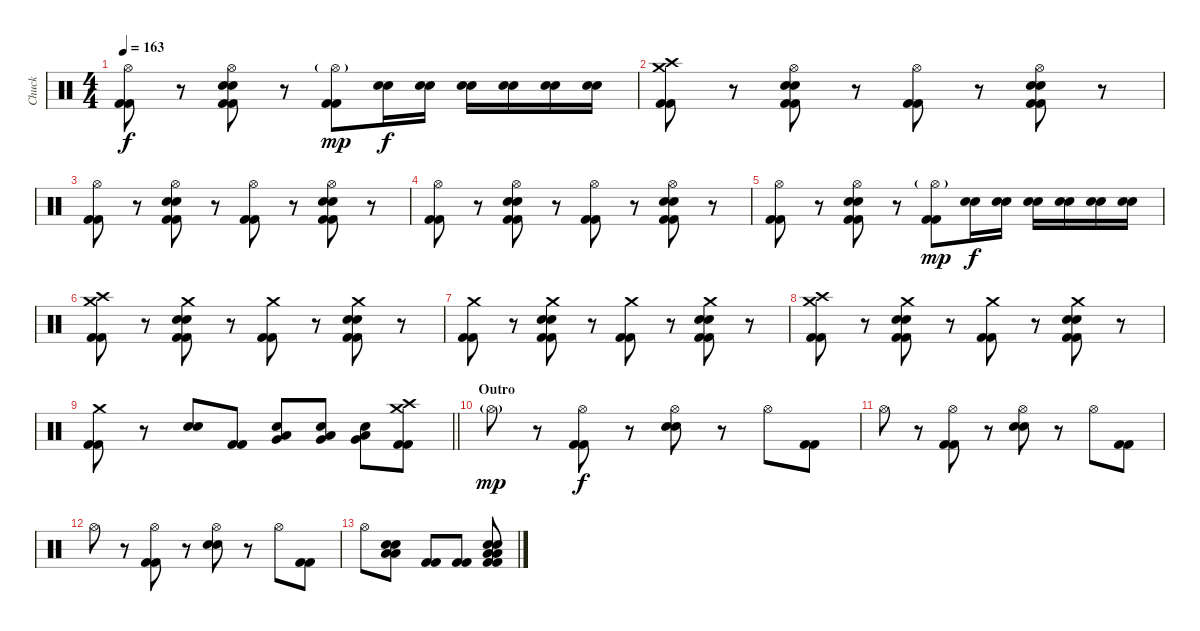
\track ("Chuck" "Chuck") {instrument percussion}
\staff {score}
\articulation defaults
\ts (4 4)
\tempo 163
\clef neutral
\ks c
("Hi-Hat (open)" "Kick (hit) 2" "Kick (hit) 2").8{dy f} r.8 ("Hi-Hat (open)" "Snare (hit) 2" "Snare (hit) 2" "Kick (hit) 2" "Kick (hit) 2").8 r.8 ("Hi-Hat (open)"{g} "Kick (hit) 2" "Kick (hit) 2").8{dy mp} ("Snare (hit) 2" "Snare (hit) 2").16{dy f} ("Snare (hit) 2" "Snare (hit) 2").16 ("Snare (hit) 2" "Snare (hit) 2").16 ("Snare (hit) 2" "Snare (hit) 2").16 ("Snare (hit) 2" "Snare (hit) 2").16 ("Snare (hit) 2" "Snare (hit) 2").16 |
("Crash medium (hit)" "Crash high (hit)" "Kick (hit) 2" "Kick (hit) 2").8 r.8 ("Hi-Hat (open)" "Snare (hit) 2" "Snare (hit) 2" "Kick (hit) 2" "Kick (hit) 2").8 r.8 ("Hi-Hat (open)" "Kick (hit) 2" "Kick (hit) 2").8 r.8 ("Hi-Hat (open)" "Snare (hit) 2" "Snare (hit) 2" "Kick (hit) 2" "Kick (hit) 2").8 r.8 |
("Hi-Hat (open)" "Kick (hit) 2" "Kick (hit) 2").8 r.8 ("Hi-Hat (open)" "Snare (hit) 2" "Snare (hit) 2" "Kick (hit) 2" "Kick (hit) 2").8 r.8 ("Hi-Hat (open)" "Kick (hit) 2" "Kick (hit) 2").8 r.8 ("Hi-Hat (open)" "Snare (hit) 2" "Snare (hit) 2" "Kick (hit) 2" "Kick (hit) 2").8 r.8 |
("Hi-Hat (open)" "Kick (hit) 2" "Kick (hit) 2").8 r.8 ("Hi-Hat (open)" "Snare (hit) 2" "Snare (hit) 2" "Kick (hit) 2" "Kick (hit) 2").8 r.8 ("Hi-Hat (open)" "Kick (hit) 2" "Kick (hit) 2").8 r.8 ("Hi-Hat (open)" "Snare (hit) 2" "Snare (hit) 2" "Kick (hit) 2" "Kick (hit) 2").8 r.8 |
("Hi-Hat (open)" "Kick (hit) 2" "Kick (hit) 2").8 r.8 ("Hi-Hat (open)" "Snare (hit) 2" "Snare (hit) 2" "Kick (hit) 2" "Kick (hit) 2").8 r.8 ("Hi-Hat (open)"{g} "Kick (hit) 2" "Kick (hit) 2").8{dy mp} ("Snare (hit) 2" "Snare (hit) 2").16{dy f} ("Snare (hit) 2" "Snare (hit) 2").16 ("Snare (hit) 2" "Snare (hit) 2").16 ("Snare (hit) 2" "Snare (hit) 2").16 ("Snare (hit) 2" "Snare (hit) 2").16 ("Snare (hit) 2" "Snare (hit) 2").16 |
("Crash medium (hit)" "Crash high (hit)" "Kick (hit) 2" "Kick (hit) 2").8 r.8 ("Crash medium (hit)" "Snare (hit) 2" "Snare (hit) 2" "Kick (hit) 2" "Kick (hit) 2").8 r.8 ("Crash medium (hit)" "Kick (hit) 2" "Kick (hit) 2").8 r.8 ("Crash medium (hit)" "Snare (hit) 2" "Snare (hit) 2" "Kick (hit) 2" "Kick (hit) 2").8 r.8 |
("Crash medium (hit)" "Kick (hit) 2" "Kick (hit) 2").8 r.8 ("Crash medium (hit)" "Snare (hit) 2" "Snare (hit) 2" "Kick (hit) 2" "Kick (hit) 2").8 r.8 ("Crash medium (hit)" "Kick (hit) 2" "Kick (hit) 2").8 r.8 ("Crash medium (hit)" "Snare (hit) 2" "Snare (hit) 2" "Kick (hit) 2" "Kick (hit) 2").8 r.8 |
("Crash medium (hit)" "Crash high (hit)" "Kick (hit) 2" "Kick (hit) 2").8 r.8 ("Crash medium (hit)" "Snare (hit) 2" "Snare (hit) 2" "Kick (hit) 2" "Kick (hit) 2").8 r.8 ("Crash medium (hit)" "Kick (hit) 2" "Kick (hit) 2").8 r.8 ("Crash medium (hit)" "Snare (hit) 2" "Snare (hit) 2" "Kick (hit) 2" "Kick (hit) 2").8 r.8 |
\barLineRight lightlight
("Crash medium (hit)" "Kick (hit) 2" "Kick (hit) 2").8 r.8 ("Snare (hit) 2" "Snare (hit) 2").8 ("Kick (hit) 2" "Kick (hit) 2").8 ("Low Tom (hit)" "Very Low Tom (hit)" "Snare (hit) 2").8 ("Low Tom (hit)" "Very Low Tom (hit)" "Snare (hit) 2").8 ("Low Tom (hit)" "Very Low Tom (hit)" "Snare (hit) 2").8 ("Crash medium (hit)" "Crash high (hit)" "Kick (hit) 2" "Kick (hit) 2").8 |
\section ("" "Outro")
"Hi-Hat (open)"{g}.8{dy mp} r.8 ("Hi-Hat (open)" "Kick (hit) 2" "Kick (hit) 2").8{dy f} r.8 ("Hi-Hat (open)" "Snare (hit) 2" "Snare (hit) 2").8 r.8 "Hi-Hat (open)".8 ("Kick (hit) 2" "Kick (hit) 2").8 |
"Hi-Hat (open)".8 r.8 ("Hi-Hat (open)" "Kick (hit) 2" "Kick (hit) 2").8 r.8 ("Hi-Hat (open)" "Snare (hit) 2" "Snare (hit) 2").8 r.8 "Hi-Hat (open)".8 ("Kick (hit) 2" "Kick (hit) 2").8 |
"Hi-Hat (open)".8 r.8 ("Hi-Hat (open)" "Kick (hit) 2" "Kick (hit) 2").8 r.8 ("Hi-Hat (open)" "Snare (hit) 2" "Snare (hit) 2").8 r.8 "Hi-Hat (open)".8 ("Kick (hit) 2" "Kick (hit) 2").8 |
"Hi-Hat (open)".8 ("Low Floor Tom (hit)" "Low Floor Tom (hit)" "Snare (hit) 2" "Snare (hit) 2").8 ("Kick (hit) 2" "Kick (hit) 2").8 ("Kick (hit) 2" "Kick (hit) 2").8 ("Low Floor Tom (hit)" "Low Floor Tom (hit)" "Snare (hit) 2" "Snare (hit) 2" "Kick (hit) 2" "Kick (hit) 2").8
